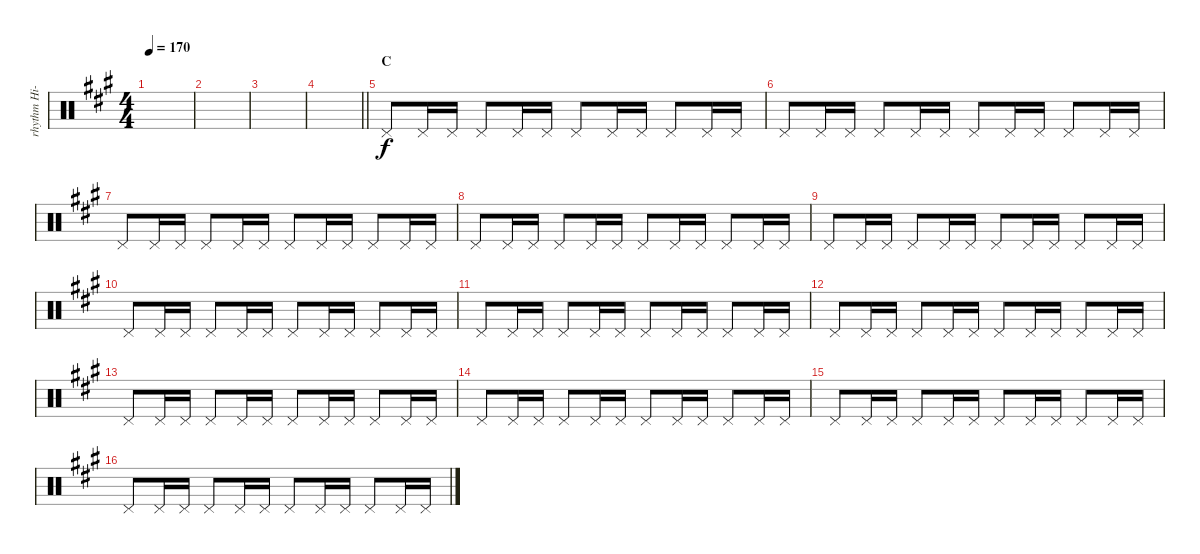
\track ("rhythm Hi-hat" "rhythm Hi-") {instrument percussion}
\staff {score}
\articulation defaults
\ts (4 4)
\tempo 170
\clef neutral
\ks a
|
|
|
\barLineRight lightlight
|
\section ("" "C")
"Pedal Hi-Hat (hit)".8 "Pedal Hi-Hat (hit)".16 "Pedal Hi-Hat (hit)".16 "Pedal Hi-Hat (hit)".8 "Pedal Hi-Hat (hit)".16 "Pedal Hi-Hat (hit)".16 "Pedal Hi-Hat (hit)".8 "Pedal Hi-Hat (hit)".16 "Pedal Hi-Hat (hit)".16 "Pedal Hi-Hat (hit)".8 "Pedal Hi-Hat (hit)".16 "Pedal Hi-Hat (hit)".16 |
"Pedal Hi-Hat (hit)".8 "Pedal Hi-Hat (hit)".16 "Pedal Hi-Hat (hit)".16 "Pedal Hi-Hat (hit)".8 "Pedal Hi-Hat (hit)".16 "Pedal Hi-Hat (hit)".16 "Pedal Hi-Hat (hit)".8 "Pedal Hi-Hat (hit)".16 "Pedal Hi-Hat (hit)".16 "Pedal Hi-Hat (hit)".8 "Pedal Hi-Hat (hit)".16 "Pedal Hi-Hat (hit)".16 |
"Pedal Hi-Hat (hit)".8 "Pedal Hi-Hat (hit)".16 "Pedal Hi-Hat (hit)".16 "Pedal Hi-Hat (hit)".8 "Pedal Hi-Hat (hit)".16 "Pedal Hi-Hat (hit)".16 "Pedal Hi-Hat (hit)".8 "Pedal Hi-Hat (hit)".16 "Pedal Hi-Hat (hit)".16 "Pedal Hi-Hat (hit)".8 "Pedal Hi-Hat (hit)".16 "Pedal Hi-Hat (hit)".16 |
"Pedal Hi-Hat (hit)".8 "Pedal Hi-Hat (hit)".16 "Pedal Hi-Hat (hit)".16 "Pedal Hi-Hat (hit)".8 "Pedal Hi-Hat (hit)".16 "Pedal Hi-Hat (hit)".16 "Pedal Hi-Hat (hit)".8 "Pedal Hi-Hat (hit)".16 "Pedal Hi-Hat (hit)".16 "Pedal Hi-Hat (hit)".8 "Pedal Hi-Hat (hit)".16 "Pedal Hi-Hat (hit)".16 |
"Pedal Hi-Hat (hit)".8 "Pedal Hi-Hat (hit)".16 "Pedal Hi-Hat (hit)".16 "Pedal Hi-Hat (hit)".8 "Pedal Hi-Hat (hit)".16 "Pedal Hi-Hat (hit)".16 "Pedal Hi-Hat (hit)".8 "Pedal Hi-Hat (hit)".16 "Pedal Hi-Hat (hit)".16 "Pedal Hi-Hat (hit)".8 "Pedal Hi-Hat (hit)".16 "Pedal Hi-Hat (hit)".16 |
"Pedal Hi-Hat (hit)".8 "Pedal Hi-Hat (hit)".16 "Pedal Hi-Hat (hit)".16 "Pedal Hi-Hat (hit)".8 "Pedal Hi-Hat (hit)".16 "Pedal Hi-Hat (hit)".16 "Pedal Hi-Hat (hit)".8 "Pedal Hi-Hat (hit)".16 "Pedal Hi-Hat (hit)".16 "Pedal Hi-Hat (hit)".8 "Pedal Hi-Hat (hit)".16 "Pedal Hi-Hat (hit)".16 |
"Pedal Hi-Hat (hit)".8 "Pedal Hi-Hat (hit)".16 "Pedal Hi-Hat (hit)".16 "Pedal Hi-Hat (hit)".8 "Pedal Hi-Hat (hit)".16 "Pedal Hi-Hat (hit)".16 "Pedal Hi-Hat (hit)".8 "Pedal Hi-Hat (hit)".16 "Pedal Hi-Hat (hit)".16 "Pedal Hi-Hat (hit)".8 "Pedal Hi-Hat (hit)".16 "Pedal Hi-Hat (hit)".16 |
"Pedal Hi-Hat (hit)".8 "Pedal Hi-Hat (hit)".16 "Pedal Hi-Hat (hit)".16 "Pedal Hi-Hat (hit)".8 "Pedal Hi-Hat (hit)".16 "Pedal Hi-Hat (hit)".16 "Pedal Hi-Hat (hit)".8 "Pedal Hi-Hat (hit)".16 "Pedal Hi-Hat (hit)".16 "Pedal Hi-Hat (hit)".8 "Pedal Hi-Hat (hit)".16 "Pedal Hi-Hat (hit)".16 |
"Pedal Hi-Hat (hit)".8 "Pedal Hi-Hat (hit)".16 "Pedal Hi-Hat (hit)".16 "Pedal Hi-Hat (hit)".8 "Pedal Hi-Hat (hit)".16 "Pedal Hi-Hat (hit)".16 "Pedal Hi-Hat (hit)".8 "Pedal Hi-Hat (hit)".16 "Pedal Hi-Hat (hit)".16 "Pedal Hi-Hat (hit)".8 "Pedal Hi-Hat (hit)".16 "Pedal Hi-Hat (hit)".16 |
"Pedal Hi-Hat (hit)".8 "Pedal Hi-Hat (hit)".16 "Pedal Hi-Hat (hit)".16 "Pedal Hi-Hat (hit)".8 "Pedal Hi-Hat (hit)".16 "Pedal Hi-Hat (hit)".16 "Pedal Hi-Hat (hit)".8 "Pedal Hi-Hat (hit)".16 "Pedal Hi-Hat (hit)".16 "Pedal Hi-Hat (hit)".8 "Pedal Hi-Hat (hit)".16 "Pedal Hi-Hat (hit)".16 |
"Pedal Hi-Hat (hit)".8 "Pedal Hi-Hat (hit)".16 "Pedal Hi-Hat (hit)".16 "Pedal Hi-Hat (hit)".8 "Pedal Hi-Hat (hit)".16 "Pedal Hi-Hat (hit)".16 "Pedal Hi-Hat (hit)".8 "Pedal Hi-Hat (hit)".16 "Pedal Hi-Hat (hit)".16 "Pedal Hi-Hat (hit)".8 "Pedal Hi-Hat (hit)".16 "Pedal Hi-Hat (hit)".16 |
"Pedal Hi-Hat (hit)".8 "Pedal Hi-Hat (hit)".16 "Pedal Hi-Hat (hit)".16 "Pedal Hi-Hat (hit)".8 "Pedal Hi-Hat (hit)".16 "Pedal Hi-Hat (hit)".16 "Pedal Hi-Hat (hit)".8 "Pedal Hi-Hat (hit)".16 "Pedal Hi-Hat (hit)".16 "Pedal Hi-Hat (hit)".8 "Pedal Hi-Hat (hit)".16 "Pedal Hi-Hat (hit)".16
